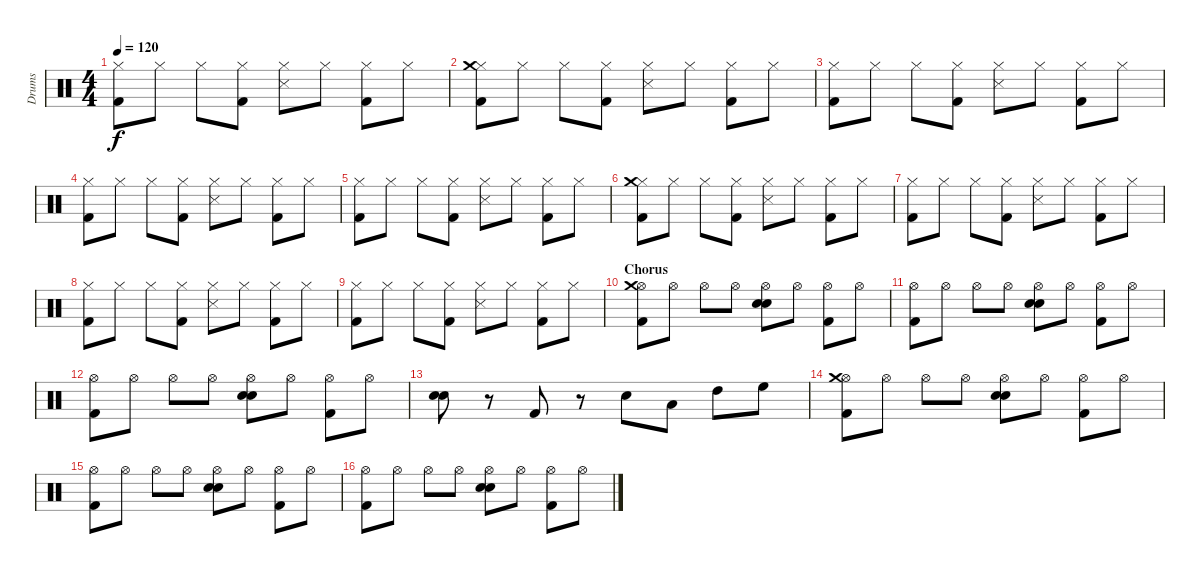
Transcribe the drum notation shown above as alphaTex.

\track ("Drums" "Drums") {instrument percussion}
\staff {score}
\articulation defaults
\ts (4 4)
\tempo 120
\clef neutral
\ks c
("Hi-Hat (closed)" "Kick (hit) 2").8{dy f} "Hi-Hat (closed)".8 "Hi-Hat (closed)".8 ("Hi-Hat (closed)" "Kick (hit) 2").8 ("Hi-Hat (closed)" "Snare (side stick) 3").8 "Hi-Hat (closed)".8 ("Hi-Hat (closed)" "Kick (hit) 2").8 "Hi-Hat (closed)".8 |
("Hi-Hat (closed)" "Kick (hit) 2" "Crash medium (hit)").8 "Hi-Hat (closed)".8 "Hi-Hat (closed)".8 ("Hi-Hat (closed)" "Kick (hit) 2").8 ("Hi-Hat (closed)" "Snare (side stick) 3").8 "Hi-Hat (closed)".8 ("Hi-Hat (closed)" "Kick (hit) 2").8 "Hi-Hat (closed)".8 |
("Hi-Hat (closed)" "Kick (hit) 2").8 "Hi-Hat (closed)".8 "Hi-Hat (closed)".8 ("Hi-Hat (closed)" "Kick (hit) 2").8 ("Hi-Hat (closed)" "Snare (side stick) 3").8 "Hi-Hat (closed)".8 ("Hi-Hat (closed)" "Kick (hit) 2").8 "Hi-Hat (closed)".8 |
("Hi-Hat (closed)" "Kick (hit) 2").8 "Hi-Hat (closed)".8 "Hi-Hat (closed)".8 ("Hi-Hat (closed)" "Kick (hit) 2").8 ("Hi-Hat (closed)" "Snare (side stick) 3").8 "Hi-Hat (closed)".8 ("Hi-Hat (closed)" "Kick (hit) 2").8 "Hi-Hat (closed)".8 |
("Hi-Hat (closed)" "Kick (hit) 2").8 "Hi-Hat (closed)".8 "Hi-Hat (closed)".8 ("Hi-Hat (closed)" "Kick (hit) 2").8 ("Hi-Hat (closed)" "Snare (side stick) 3").8 "Hi-Hat (closed)".8 ("Hi-Hat (closed)" "Kick (hit) 2").8 "Hi-Hat (closed)".8 |
("Hi-Hat (closed)" "Kick (hit) 2" "Crash medium (hit)").8 "Hi-Hat (closed)".8 "Hi-Hat (closed)".8 ("Hi-Hat (closed)" "Kick (hit) 2").8 ("Hi-Hat (closed)" "Snare (side stick) 3").8 "Hi-Hat (closed)".8 ("Hi-Hat (closed)" "Kick (hit) 2").8 "Hi-Hat (closed)".8 |
("Hi-Hat (closed)" "Kick (hit) 2").8 "Hi-Hat (closed)".8 "Hi-Hat (closed)".8 ("Hi-Hat (closed)" "Kick (hit) 2").8 ("Hi-Hat (closed)" "Snare (side stick) 3").8 "Hi-Hat (closed)".8 ("Hi-Hat (closed)" "Kick (hit) 2").8 "Hi-Hat (closed)".8 |
("Hi-Hat (closed)" "Kick (hit) 2").8 "Hi-Hat (closed)".8 "Hi-Hat (closed)".8 ("Hi-Hat (closed)" "Kick (hit) 2").8 ("Hi-Hat (closed)" "Snare (side stick) 3").8 "Hi-Hat (closed)".8 ("Hi-Hat (closed)" "Kick (hit) 2").8 "Hi-Hat (closed)".8 |
("Hi-Hat (closed)" "Kick (hit) 2").8 "Hi-Hat (closed)".8 "Hi-Hat (closed)".8 ("Hi-Hat (closed)" "Kick (hit) 2").8 ("Hi-Hat (closed)" "Snare (side stick) 3").8 "Hi-Hat (closed)".8 ("Hi-Hat (closed)" "Kick (hit) 2").8 "Hi-Hat (closed)".8 |
\section ("" "Chorus")
("Hi-Hat (open)" "Kick (hit) 2" "Crash medium (hit)").8 "Hi-Hat (open)".8 "Hi-Hat (open)".8 "Hi-Hat (open)".8 ("Hi-Hat (open)" "Snare (hit) 2" "Electric Snare (hit)").8 "Hi-Hat (open)".8 ("Hi-Hat (open)" "Kick (hit) 2").8 "Hi-Hat (open)".8 |
("Hi-Hat (open)" "Kick (hit) 2").8 "Hi-Hat (open)".8 "Hi-Hat (open)".8 "Hi-Hat (open)".8 ("Hi-Hat (open)" "Snare (hit) 2" "Electric Snare (hit)").8 "Hi-Hat (open)".8 ("Hi-Hat (open)" "Kick (hit) 2").8 "Hi-Hat (open)".8 |
("Hi-Hat (open)" "Kick (hit) 2").8 "Hi-Hat (open)".8 "Hi-Hat (open)".8 "Hi-Hat (open)".8 ("Hi-Hat (open)" "Snare (hit) 2" "Electric Snare (hit)").8 "Hi-Hat (open)".8 ("Hi-Hat (open)" "Kick (hit) 2").8 "Hi-Hat (open)".8 |
("Snare (hit) 2" "Electric Snare (hit)").8 r.8 "Kick (hit) 2".8 r.8 "Snare (hit) 2".8 "Low Tom (hit)".8 "High Tom (hit)".8 "High Floor Tom (hit)".8 |
("Hi-Hat (open)" "Kick (hit) 2" "Crash medium (hit)").8 "Hi-Hat (open)".8 "Hi-Hat (open)".8 "Hi-Hat (open)".8 ("Hi-Hat (open)" "Snare (hit) 2" "Electric Snare (hit)").8 "Hi-Hat (open)".8 ("Hi-Hat (open)" "Kick (hit) 2").8 "Hi-Hat (open)".8 |
("Hi-Hat (open)" "Kick (hit) 2").8 "Hi-Hat (open)".8 "Hi-Hat (open)".8 "Hi-Hat (open)".8 ("Hi-Hat (open)" "Snare (hit) 2" "Electric Snare (hit)").8 "Hi-Hat (open)".8 ("Hi-Hat (open)" "Kick (hit) 2").8 "Hi-Hat (open)".8 |
("Hi-Hat (open)" "Kick (hit) 2").8 "Hi-Hat (open)".8 "Hi-Hat (open)".8 "Hi-Hat (open)".8 ("Hi-Hat (open)" "Snare (hit) 2" "Electric Snare (hit)").8 "Hi-Hat (open)".8 ("Hi-Hat (open)" "Kick (hit) 2").8 "Hi-Hat (open)".8
